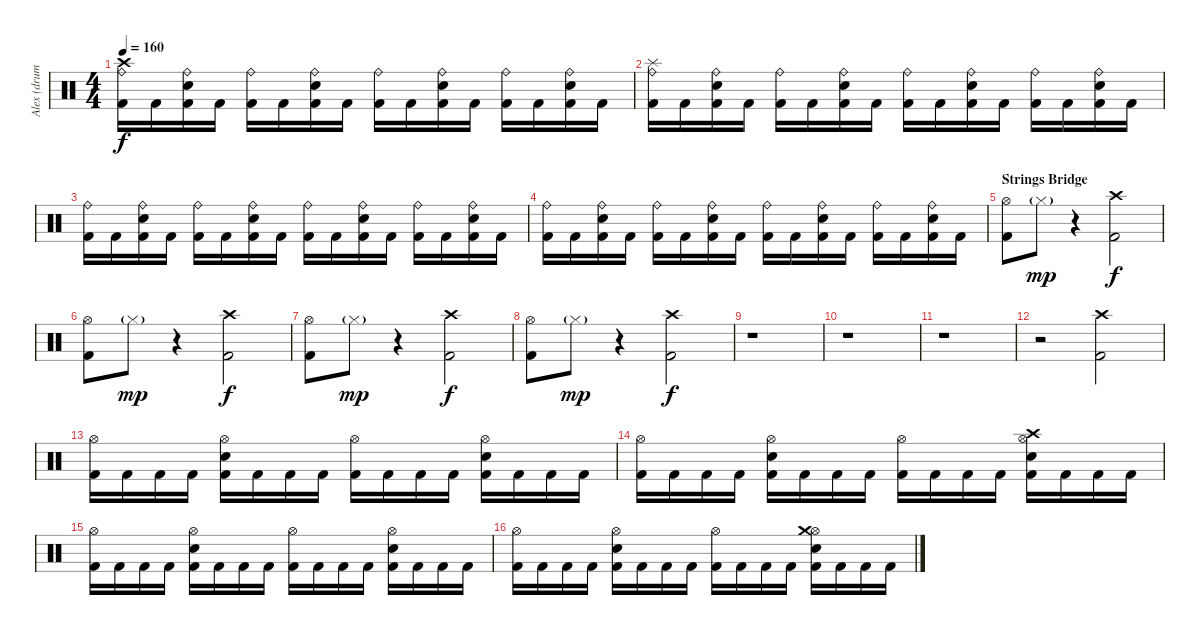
\track ("Alex (drums)" "Alex (drum") {instrument percussion}
\staff {score}
\articulation defaults
\ts (4 4)
\tempo 160
\clef neutral
\ks c
("Ride (bell)" "Kick (hit) 2" "Crash high (hit)").16{dy f} "Kick (hit) 2".16 ("Ride (bell)" "Snare (hit) 2" "Kick (hit) 2").16 "Kick (hit) 2".16 ("Ride (bell)" "Kick (hit) 2").16 "Kick (hit) 2".16 ("Ride (bell)" "Snare (hit) 2" "Kick (hit) 2").16 "Kick (hit) 2".16 ("Ride (bell)" "Kick (hit) 2").16 "Kick (hit) 2".16 ("Ride (bell)" "Snare (hit) 2" "Kick (hit) 2").16 "Kick (hit) 2".16 ("Ride (bell)" "Kick (hit) 2").16 "Kick (hit) 2".16 ("Ride (bell)" "Snare (hit) 2" "Kick (hit) 2").16 "Kick (hit) 2".16 |
("Ride (bell)" "Kick (hit) 2" "Splash (hit)").16 "Kick (hit) 2".16 ("Ride (bell)" "Snare (hit) 2" "Kick (hit) 2").16 "Kick (hit) 2".16 ("Ride (bell)" "Kick (hit) 2").16 "Kick (hit) 2".16 ("Ride (bell)" "Snare (hit) 2" "Kick (hit) 2").16 "Kick (hit) 2".16 ("Ride (bell)" "Kick (hit) 2").16 "Kick (hit) 2".16 ("Ride (bell)" "Snare (hit) 2" "Kick (hit) 2").16 "Kick (hit) 2".16 ("Ride (bell)" "Kick (hit) 2").16 "Kick (hit) 2".16 ("Ride (bell)" "Snare (hit) 2" "Kick (hit) 2").16 "Kick (hit) 2".16 |
("Ride (bell)" "Kick (hit) 2").16 "Kick (hit) 2".16 ("Ride (bell)" "Snare (hit) 2" "Kick (hit) 2").16 "Kick (hit) 2".16 ("Ride (bell)" "Kick (hit) 2").16 "Kick (hit) 2".16 ("Ride (bell)" "Snare (hit) 2" "Kick (hit) 2").16 "Kick (hit) 2".16 ("Ride (bell)" "Kick (hit) 2").16 "Kick (hit) 2".16 ("Ride (bell)" "Snare (hit) 2" "Kick (hit) 2").16 "Kick (hit) 2".16 ("Ride (bell)" "Kick (hit) 2").16 "Kick (hit) 2".16 ("Ride (bell)" "Snare (hit) 2" "Kick (hit) 2").16 "Kick (hit) 2".16 |
("Ride (bell)" "Kick (hit) 2").16 "Kick (hit) 2".16 ("Ride (bell)" "Snare (hit) 2" "Kick (hit) 2").16 "Kick (hit) 2".16 ("Ride (bell)" "Kick (hit) 2").16 "Kick (hit) 2".16 ("Ride (bell)" "Snare (hit) 2" "Kick (hit) 2").16 "Kick (hit) 2".16 ("Ride (bell)" "Kick (hit) 2").16 "Kick (hit) 2".16 ("Ride (bell)" "Snare (hit) 2" "Kick (hit) 2").16 "Kick (hit) 2".16 ("Ride (bell)" "Kick (hit) 2").16 "Kick (hit) 2".16 ("Ride (bell)" "Snare (hit) 2" "Kick (hit) 2").16 "Kick (hit) 2".16 |
\section ("" "Strings Bridge")
("Hi-Hat (open)" "Kick (hit) 2").8 "Hi-Hat (closed)"{g}.8{dy mp} r.4 ("Kick (hit) 2" "Crash high (hit)").2{dy f} |
("Hi-Hat (open)" "Kick (hit) 2").8 "Hi-Hat (closed)"{g}.8{dy mp} r.4 ("Kick (hit) 2" "Crash high (hit)").2{dy f} |
("Hi-Hat (open)" "Kick (hit) 2").8 "Hi-Hat (closed)"{g}.8{dy mp} r.4 ("Kick (hit) 2" "Crash high (hit)").2{dy f} |
("Hi-Hat (open)" "Kick (hit) 2").8 "Hi-Hat (closed)"{g}.8{dy mp} r.4 ("Kick (hit) 2" "Crash high (hit)").2{dy f} |
r.1 |
r.1 |
r.1 |
r.2 ("Kick (hit) 2" "Crash high (hit)").2 |
("Hi-Hat (open)" "Kick (hit) 2").16 "Kick (hit) 2".16 "Kick (hit) 2".16 "Kick (hit) 2".16 ("Hi-Hat (open)" "Snare (hit) 2" "Kick (hit) 2").16 "Kick (hit) 2".16 "Kick (hit) 2".16 "Kick (hit) 2".16 ("Hi-Hat (open)" "Kick (hit) 2").16 "Kick (hit) 2".16 "Kick (hit) 2".16 "Kick (hit) 2".16 ("Hi-Hat (open)" "Snare (hit) 2" "Kick (hit) 2").16 "Kick (hit) 2".16 "Kick (hit) 2".16 "Kick (hit) 2".16 |
("Hi-Hat (open)" "Kick (hit) 2").16 "Kick (hit) 2".16 "Kick (hit) 2".16 "Kick (hit) 2".16 ("Hi-Hat (open)" "Snare (hit) 2" "Kick (hit) 2").16 "Kick (hit) 2".16 "Kick (hit) 2".16 "Kick (hit) 2".16 ("Hi-Hat (open)" "Kick (hit) 2").16 "Kick (hit) 2".16 "Kick (hit) 2".16 "Kick (hit) 2".16 ("Hi-Hat (open)" "Snare (hit) 2" "Kick (hit) 2" "Crash high (hit)").16 "Kick (hit) 2".16 "Kick (hit) 2".16 "Kick (hit) 2".16 |
("Hi-Hat (open)" "Kick (hit) 2").16 "Kick (hit) 2".16 "Kick (hit) 2".16 "Kick (hit) 2".16 ("Hi-Hat (open)" "Snare (hit) 2" "Kick (hit) 2").16 "Kick (hit) 2".16 "Kick (hit) 2".16 "Kick (hit) 2".16 ("Hi-Hat (open)" "Kick (hit) 2").16 "Kick (hit) 2".16 "Kick (hit) 2".16 "Kick (hit) 2".16 ("Hi-Hat (open)" "Snare (hit) 2" "Kick (hit) 2").16 "Kick (hit) 2".16 "Kick (hit) 2".16 "Kick (hit) 2".16 |
("Hi-Hat (open)" "Kick (hit) 2").16 "Kick (hit) 2".16 "Kick (hit) 2".16 "Kick (hit) 2".16 ("Hi-Hat (open)" "Snare (hit) 2" "Kick (hit) 2").16 "Kick (hit) 2".16 "Kick (hit) 2".16 "Kick (hit) 2".16 ("Hi-Hat (open)" "Kick (hit) 2").16 "Kick (hit) 2".16 "Kick (hit) 2".16 "Kick (hit) 2".16 ("Hi-Hat (open)" "Snare (hit) 2" "Kick (hit) 2" "Crash medium (hit)").16 "Kick (hit) 2".16 "Kick (hit) 2".16 "Kick (hit) 2".16
